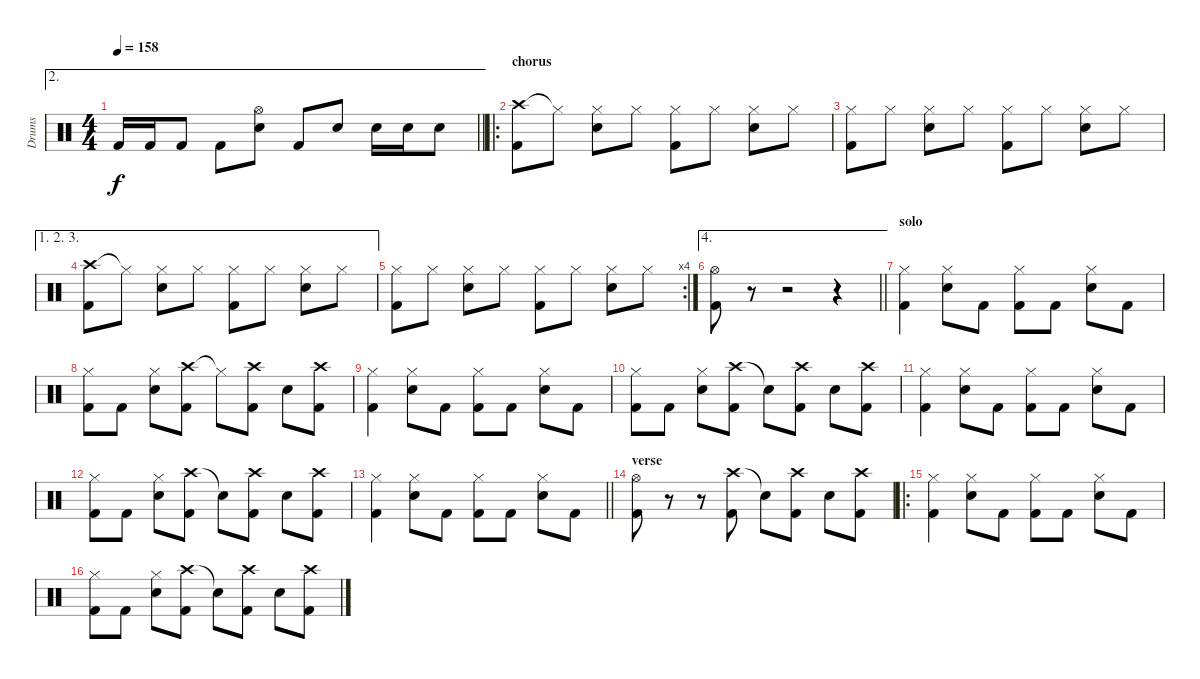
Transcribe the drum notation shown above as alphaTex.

\track ("Drums" "Drums") {instrument percussion}
\staff {score}
\articulation defaults
\ae 2
\ts (4 4)
\tempo 158
\clef neutral
\barLineRight lightlight
\ks c "Kick (hit) 2".16{dy f} "Kick (hit) 2".16 "Kick (hit) 2".8 "Kick (hit) 2".8
("Hi-Hat (open)" "Electric Snare (hit)").8 "Kick (hit) 2".8 "Electric Snare (hit)".8 "Electric Snare (hit)".16 "Electric Snare (hit)".16 "Electric Snare (hit)".8 |
\ro
\section ("" "chorus")
("Crash high (hit)" "Kick (hit) 2").8 "Hi-Hat (closed)"{t}.8 ("Hi-Hat (closed)" "Electric Snare (hit)").8 "Hi-Hat (closed)".8 ("Hi-Hat (closed)" "Kick (hit) 2").8 "Hi-Hat (closed)".8 ("Hi-Hat (closed)" "Electric Snare (hit)").8 "Hi-Hat (closed)".8 |
("Hi-Hat (closed)" "Kick (hit) 2").8 "Hi-Hat (closed)".8 ("Hi-Hat (closed)" "Electric Snare (hit)").8 "Hi-Hat (closed)".8 ("Hi-Hat (closed)" "Kick (hit) 2").8 "Hi-Hat (closed)".8 ("Hi-Hat (closed)" "Electric Snare (hit)").8 "Hi-Hat (closed)".8 |
\ae (1 2 3)
("Crash high (hit)" "Kick (hit) 2").8 "Hi-Hat (closed)"{t}.8 ("Hi-Hat (closed)" "Electric Snare (hit)").8 "Hi-Hat (closed)".8 ("Hi-Hat (closed)" "Kick (hit) 2").8 "Hi-Hat (closed)".8 ("Hi-Hat (closed)" "Electric Snare (hit)").8 "Hi-Hat (closed)".8 |
\rc 4
("Hi-Hat (closed)" "Kick (hit) 2").8 "Hi-Hat (closed)".8 ("Hi-Hat (closed)" "Electric Snare (hit)").8 "Hi-Hat (closed)".8 ("Hi-Hat (closed)" "Kick (hit) 2").8 "Hi-Hat (closed)".8 ("Hi-Hat (closed)" "Electric Snare (hit)").8 "Hi-Hat (closed)".8 |
\ae 4
\barLineRight lightlight
("Hi-Hat (open)" "Kick (hit) 2").8 r.8 r.2 r.4 |
\section ("" "solo")
("Hi-Hat (closed)" "Kick (hit) 2").4 ("Hi-Hat (closed)" "Electric Snare (hit)").8 "Kick (hit) 2".8 ("Hi-Hat (closed)" "Kick (hit) 2").8 "Kick (hit) 2".8 ("Hi-Hat (closed)" "Electric Snare (hit)").8 "Kick (hit) 2".8 |
("Hi-Hat (closed)" "Kick (hit) 2").8 "Kick (hit) 2".8 ("Hi-Hat (closed)" "Electric Snare (hit)").8 ("Crash high (hit)" "Kick (hit) 2").8 "Hi-Hat (closed)"{t}.8 ("Crash high (hit)" "Kick (hit) 2").8 "Electric Snare (hit)".8 ("Crash high (hit)" "Kick (hit) 2").8 |
("Hi-Hat (closed)" "Kick (hit) 2").4 ("Hi-Hat (closed)" "Electric Snare (hit)").8 "Kick (hit) 2".8 ("Hi-Hat (closed)" "Kick (hit) 2").8 "Kick (hit) 2".8 ("Hi-Hat (closed)" "Electric Snare (hit)").8 "Kick (hit) 2".8 |
("Hi-Hat (closed)" "Kick (hit) 2").8 "Kick (hit) 2".8 ("Hi-Hat (closed)" "Electric Snare (hit)").8 ("Crash high (hit)" "Kick (hit) 2").8 "Snare (hit)"{t}.8 ("Crash high (hit)" "Kick (hit) 2").8 "Electric Snare (hit)".8 ("Crash high (hit)" "Kick (hit) 2").8 |
("Hi-Hat (closed)" "Kick (hit) 2").4 ("Hi-Hat (closed)" "Electric Snare (hit)").8 "Kick (hit) 2".8 ("Hi-Hat (closed)" "Kick (hit) 2").8 "Kick (hit) 2".8 ("Hi-Hat (closed)" "Electric Snare (hit)").8 "Kick (hit) 2".8 |
("Hi-Hat (closed)" "Kick (hit) 2").8 "Kick (hit) 2".8 ("Hi-Hat (closed)" "Electric Snare (hit)").8 ("Crash high (hit)" "Kick (hit) 2").8 "Snare (hit)"{t}.8 ("Crash high (hit)" "Kick (hit) 2").8 "Electric Snare (hit)".8 ("Crash high (hit)" "Kick (hit) 2").8 |
\barLineRight lightlight
("Hi-Hat (closed)" "Kick (hit) 2").4 ("Hi-Hat (closed)" "Electric Snare (hit)").8 "Kick (hit) 2".8 ("Hi-Hat (closed)" "Kick (hit) 2").8 "Kick (hit) 2".8 ("Hi-Hat (closed)" "Electric Snare (hit)").8 "Kick (hit) 2".8 |
\section ("" "verse")
("Hi-Hat (open)" "Kick (hit) 2").8 r.8 r.8 ("Crash high (hit)" "Kick (hit) 2").8 "Snare (hit)"{t}.8 ("Crash high (hit)" "Kick (hit) 2").8 "Electric Snare (hit)".8 ("Crash high (hit)" "Kick (hit) 2").8 |
\ro
("Hi-Hat (closed)" "Kick (hit) 2").4 ("Hi-Hat (closed)" "Electric Snare (hit)").8 "Kick (hit) 2".8 ("Hi-Hat (closed)" "Kick (hit) 2").8 "Kick (hit) 2".8 ("Hi-Hat (closed)" "Electric Snare (hit)").8 "Kick (hit) 2".8 |
("Hi-Hat (closed)" "Kick (hit) 2").8 "Kick (hit) 2".8 ("Hi-Hat (closed)" "Electric Snare (hit)").8 ("Crash high (hit)" "Kick (hit) 2").8 "Snare (hit)"{t}.8 ("Crash high (hit)" "Kick (hit) 2").8 "Electric Snare (hit)".8 ("Crash high (hit)" "Kick (hit) 2").8
